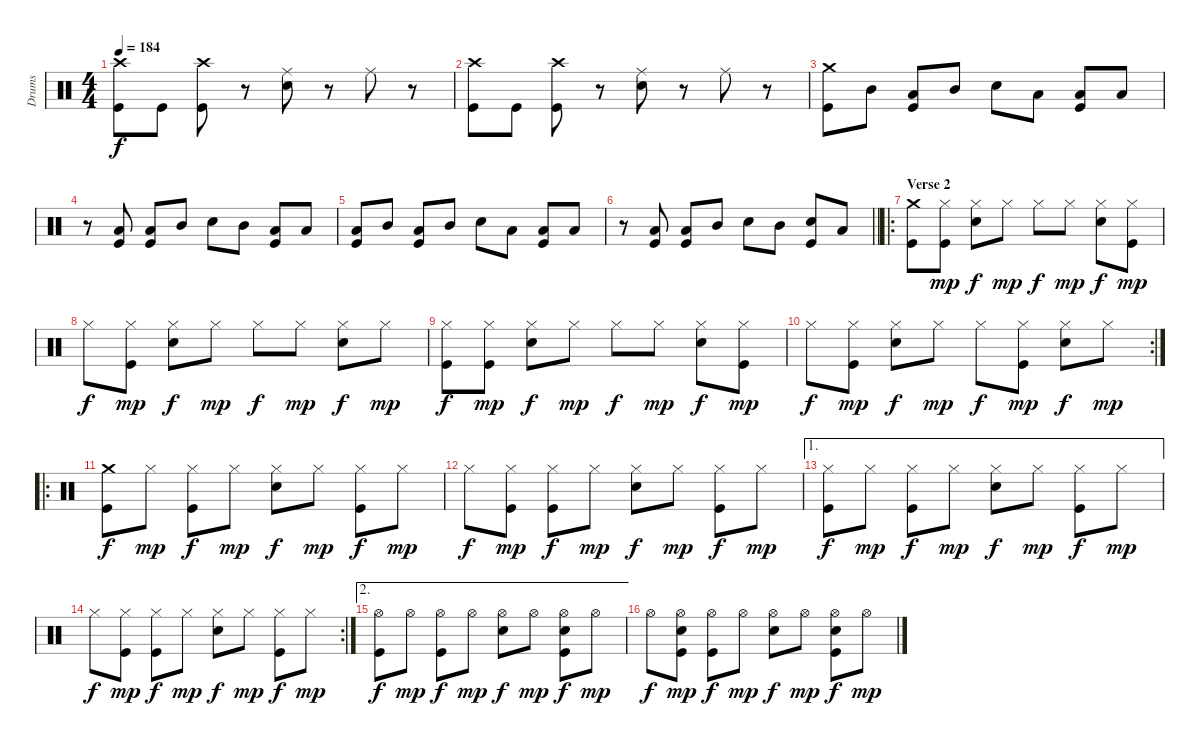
\track ("Drums" "Drums") {instrument percussion}
\staff {score}
\articulation defaults
\ts (4 4)
\tempo 184
\clef neutral
\ks c
("Crash high (hit)" "Kick (hit)").8{dy f} "Kick (hit)".8 ("Crash high (hit)" "Kick (hit)").8 r.8 ("Ride (middle)" "Electric Snare (hit)").8 r.8 "Ride (middle)".8 r.8 |
("Crash high (hit)" "Kick (hit)").8 "Kick (hit)".8 ("Crash high (hit)" "Kick (hit)").8 r.8 ("Ride (middle)" "Electric Snare (hit)").8 r.8 "Ride (middle)".8 r.8 |
("Crash medium (hit)" "Kick (hit)").8 "Mid Tom (hit)".8 ("Low Tom (hit)" "Kick (hit)").8 "Mid Tom (hit)".8 "Electric Snare (hit)".8 "Low Tom (hit)".8 ("Low Tom (hit)" "Kick (hit)").8 "Low Tom (hit)".8 |
r.8 ("Low Tom (hit)" "Kick (hit)").8 ("Low Tom (hit)" "Kick (hit)").8 "Mid Tom (hit)".8 "Electric Snare (hit)".8 "Mid Tom (hit)".8 ("Low Tom (hit)" "Kick (hit)").8 "Low Tom (hit)".8 |
("Low Tom (hit)" "Kick (hit)").8 "Mid Tom (hit)".8 ("Low Tom (hit)" "Kick (hit)").8 "Mid Tom (hit)".8 "Electric Snare (hit)".8 "Low Tom (hit)".8 ("Low Tom (hit)" "Kick (hit)").8 "Low Tom (hit)".8 |
\barLineRight lightlight
r.8 ("Low Tom (hit)" "Kick (hit)").8 ("Low Tom (hit)" "Kick (hit)").8 "Mid Tom (hit)".8 "Electric Snare (hit)".8 "Mid Tom (hit)".8 ("Electric Snare (hit)" "Kick (hit)").8 "Low Tom (hit)".8 |
\ro
\section ("" "Verse 2")
("Crash medium (hit)" "Kick (hit)").8 ("Hi-Hat (closed)" "Kick (hit)").8{dy mp} ("Hi-Hat (closed)" "Electric Snare (hit)").8{dy f} "Hi-Hat (closed)".8{dy mp} "Hi-Hat (closed)".8{dy f} "Hi-Hat (closed)".8{dy mp} ("Hi-Hat (closed)" "Electric Snare (hit)").8{dy f} ("Hi-Hat (closed)" "Kick (hit)").8{dy mp} |
"Hi-Hat (closed)".8{dy f} ("Hi-Hat (closed)" "Kick (hit)").8{dy mp} ("Hi-Hat (closed)" "Electric Snare (hit)").8{dy f} "Hi-Hat (closed)".8{dy mp} "Hi-Hat (closed)".8{dy f} "Hi-Hat (closed)".8{dy mp} ("Hi-Hat (closed)" "Electric Snare (hit)").8{dy f} "Hi-Hat (closed)".8{dy mp} |
("Hi-Hat (closed)" "Kick (hit)").8{dy f} ("Hi-Hat (closed)" "Kick (hit)").8{dy mp} ("Hi-Hat (closed)" "Electric Snare (hit)").8{dy f} "Hi-Hat (closed)".8{dy mp} "Hi-Hat (closed)".8{dy f} "Hi-Hat (closed)".8{dy mp} ("Hi-Hat (closed)" "Electric Snare (hit)").8{dy f} ("Hi-Hat (closed)" "Kick (hit)").8{dy mp} |
\rc 2 "Hi-Hat (closed)".8{dy f}
("Hi-Hat (closed)" "Kick (hit)").8{dy mp} ("Hi-Hat (closed)" "Electric Snare (hit)").8{dy f} "Hi-Hat (closed)".8{dy mp} "Hi-Hat (closed)".8{dy f} ("Hi-Hat (closed)" "Kick (hit)").8{dy mp} ("Hi-Hat (closed)" "Electric Snare (hit)").8{dy f} "Hi-Hat (closed)".8{dy mp} |
\ro
("Crash medium (hit)" "Kick (hit)").8{dy f} "Hi-Hat (closed)".8{dy mp} ("Hi-Hat (closed)" "Kick (hit)").8{dy f} "Hi-Hat (closed)".8{dy mp} ("Hi-Hat (closed)" "Electric Snare (hit)").8{dy f} "Hi-Hat (closed)".8{dy mp} ("Hi-Hat (closed)" "Kick (hit)").8{dy f} "Hi-Hat (closed)".8{dy mp} |
"Hi-Hat (closed)".8{dy f} ("Hi-Hat (closed)" "Kick (hit)").8{dy mp} ("Hi-Hat (closed)" "Kick (hit)").8{dy f} "Hi-Hat (closed)".8{dy mp} ("Hi-Hat (closed)" "Electric Snare (hit)").8{dy f} "Hi-Hat (closed)".8{dy mp} ("Hi-Hat (closed)" "Kick (hit)").8{dy f} "Hi-Hat (closed)".8{dy mp} |
\ae 1
("Hi-Hat (closed)" "Kick (hit)").8{dy f} "Hi-Hat (closed)".8{dy mp} ("Hi-Hat (closed)" "Kick (hit)").8{dy f} "Hi-Hat (closed)".8{dy mp} ("Hi-Hat (closed)" "Electric Snare (hit)").8{dy f} "Hi-Hat (closed)".8{dy mp} ("Hi-Hat (closed)" "Kick (hit)").8{dy f} "Hi-Hat (closed)".8{dy mp} |
\rc 2 "Hi-Hat (closed)".8{dy f}
("Hi-Hat (closed)" "Kick (hit)").8{dy mp} ("Hi-Hat (closed)" "Kick (hit)").8{dy f} "Hi-Hat (closed)".8{dy mp} ("Hi-Hat (closed)" "Electric Snare (hit)").8{dy f} "Hi-Hat (closed)".8{dy mp} ("Hi-Hat (closed)" "Kick (hit)").8{dy f} "Hi-Hat (closed)".8{dy mp} |
\ae 2
("Hi-Hat (open)" "Kick (hit)").8{dy f} "Hi-Hat (open)".8{dy mp} ("Hi-Hat (open)" "Kick (hit)").8{dy f} "Hi-Hat (open)".8{dy mp} ("Hi-Hat (open)" "Electric Snare (hit)").8{dy f} "Hi-Hat (open)".8{dy mp} ("Hi-Hat (open)" "Electric Snare (hit)" "Kick (hit)").8{dy f} "Hi-Hat (open)".8{dy mp} |
"Hi-Hat (open)".8{dy f} ("Hi-Hat (open)" "Electric Snare (hit)" "Kick (hit)").8{dy mp} ("Hi-Hat (open)" "Kick (hit)").8{dy f} "Hi-Hat (open)".8{dy mp} ("Hi-Hat (open)" "Electric Snare (hit)").8{dy f} "Hi-Hat (open)".8{dy mp} ("Hi-Hat (open)" "Electric Snare (hit)" "Kick (hit)").8{dy f} "Hi-Hat (open)".8{dy mp}
